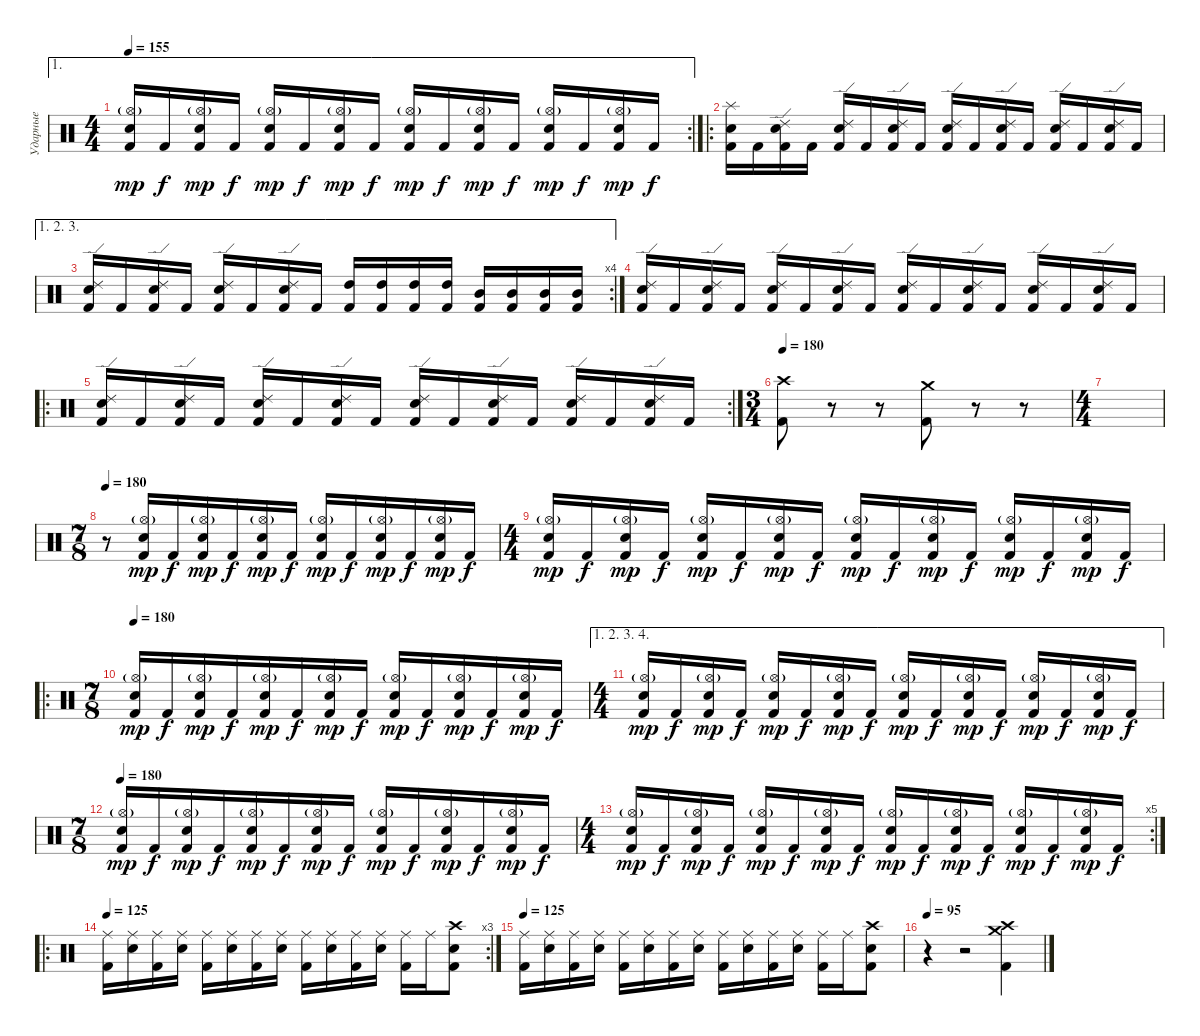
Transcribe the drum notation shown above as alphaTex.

\track ("Ударные" "Ударные") {instrument percussion}
\staff {score}
\articulation defaults
\ae 1
\rc 2
\ts (4 4)
\tempo 155
\clef neutral
\ks c
("Electric Snare (hit)" "Hi-Hat (open)"{g} "Kick (hit) 2").16{dy mp} "Kick (hit) 2".16{dy f} ("Electric Snare (hit)" "Hi-Hat (open)"{g} "Kick (hit) 2").16{dy mp} "Kick (hit) 2".16{dy f} ("Electric Snare (hit)" "Hi-Hat (open)"{g} "Kick (hit) 2").16{dy mp} "Kick (hit) 2".16{dy f} ("Electric Snare (hit)" "Hi-Hat (open)"{g} "Kick (hit) 2").16{dy mp} "Kick (hit) 2".16{dy f} ("Electric Snare (hit)" "Hi-Hat (open)"{g} "Kick (hit) 2").16{dy mp} "Kick (hit) 2".16{dy f} ("Electric Snare (hit)" "Hi-Hat (open)"{g} "Kick (hit) 2").16{dy mp} "Kick (hit) 2".16{dy f} ("Electric Snare (hit)" "Hi-Hat (open)"{g} "Kick (hit) 2").16{dy mp} "Kick (hit) 2".16{dy f} ("Electric Snare (hit)" "Hi-Hat (open)"{g} "Kick (hit) 2").16{dy mp} "Kick (hit) 2".16{dy f} |
\ro
("Electric Snare (hit)" "Splash (hit)" "Kick (hit) 2").16 "Kick (hit) 2".16 ("Electric Snare (hit)" "Ride (edge) 2" "Kick (hit) 2").16 "Kick (hit) 2".16 ("Electric Snare (hit)" "Ride (edge) 2" "Kick (hit) 2").16 "Kick (hit) 2".16 ("Electric Snare (hit)" "Ride (edge) 2" "Kick (hit) 2").16 "Kick (hit) 2".16 ("Electric Snare (hit)" "Ride (edge) 2" "Kick (hit) 2").16 "Kick (hit) 2".16 ("Electric Snare (hit)" "Ride (edge) 2" "Kick (hit) 2").16 "Kick (hit) 2".16 ("Electric Snare (hit)" "Ride (edge) 2" "Kick (hit) 2").16 "Kick (hit) 2".16 ("Electric Snare (hit)" "Ride (edge) 2" "Kick (hit) 2").16 "Kick (hit) 2".16 |
\ae (1 2 3)
\rc 4
("Electric Snare (hit)" "Ride (edge) 2" "Kick (hit) 2").16 "Kick (hit) 2".16 ("Electric Snare (hit)" "Ride (edge) 2" "Kick (hit) 2").16 "Kick (hit) 2".16 ("Electric Snare (hit)" "Ride (edge) 2" "Kick (hit) 2").16 "Kick (hit) 2".16 ("Electric Snare (hit)" "Ride (edge) 2" "Kick (hit) 2").16 "Kick (hit) 2".16 ("High Tom (hit)" "Kick (hit) 2").16 ("High Tom (hit)" "Kick (hit) 2").16 ("High Tom (hit)" "Kick (hit) 2").16 ("High Tom (hit)" "Kick (hit) 2").16 ("Mid Tom (hit)" "Kick (hit) 2").16 ("Mid Tom (hit)" "Kick (hit) 2").16 ("Mid Tom (hit)" "Kick (hit) 2").16 ("Mid Tom (hit)" "Kick (hit) 2").16 |
("Electric Snare (hit)" "Ride (edge) 2" "Kick (hit) 2").16 "Kick (hit) 2".16 ("Electric Snare (hit)" "Ride (edge) 2" "Kick (hit) 2").16 "Kick (hit) 2".16 ("Electric Snare (hit)" "Ride (edge) 2" "Kick (hit) 2").16 "Kick (hit) 2".16 ("Electric Snare (hit)" "Ride (edge) 2" "Kick (hit) 2").16 "Kick (hit) 2".16 ("Electric Snare (hit)" "Ride (edge) 2" "Kick (hit) 2").16 "Kick (hit) 2".16 ("Electric Snare (hit)" "Ride (edge) 2" "Kick (hit) 2").16 "Kick (hit) 2".16 ("Electric Snare (hit)" "Ride (edge) 2" "Kick (hit) 2").16 "Kick (hit) 2".16 ("Electric Snare (hit)" "Ride (edge) 2" "Kick (hit) 2").16 "Kick (hit) 2".16 |
\ro
\rc 2
("Electric Snare (hit)" "Ride (edge) 2" "Kick (hit) 2").16 "Kick (hit) 2".16 ("Electric Snare (hit)" "Ride (edge) 2" "Kick (hit) 2").16 "Kick (hit) 2".16 ("Electric Snare (hit)" "Ride (edge) 2" "Kick (hit) 2").16 "Kick (hit) 2".16 ("Electric Snare (hit)" "Ride (edge) 2" "Kick (hit) 2").16 "Kick (hit) 2".16 ("Electric Snare (hit)" "Ride (edge) 2" "Kick (hit) 2").16 "Kick (hit) 2".16 ("Electric Snare (hit)" "Ride (edge) 2" "Kick (hit) 2").16 "Kick (hit) 2".16 ("Electric Snare (hit)" "Ride (edge) 2" "Kick (hit) 2").16 "Kick (hit) 2".16 ("Electric Snare (hit)" "Ride (edge) 2" "Kick (hit) 2").16 "Kick (hit) 2".16 |
\ts (3 4)
\tempo 180
("Crash high (hit)" "Kick (hit) 2").8 r.8 r.8 ("Crash medium (hit)" "Kick (hit) 2").8 r.8 r.8 |
\ts (4 4)
|
\ts (7 8)
\tempo 180
r.8 ("Hi-Hat (open)"{g} "Electric Snare (hit)" "Kick (hit) 2").16{dy mp} "Kick (hit) 2".16{dy f} ("Hi-Hat (open)"{g} "Electric Snare (hit)" "Kick (hit) 2").16{dy mp} "Kick (hit) 2".16{dy f} ("Hi-Hat (open)"{g} "Electric Snare (hit)" "Kick (hit) 2").16{dy mp} "Kick (hit) 2".16{dy f} ("Hi-Hat (open)"{g} "Electric Snare (hit)" "Kick (hit) 2").16{dy mp} "Kick (hit) 2".16{dy f} ("Hi-Hat (open)"{g} "Electric Snare (hit)" "Kick (hit) 2").16{dy mp} "Kick (hit) 2".16{dy f} ("Hi-Hat (open)"{g} "Electric Snare (hit)" "Kick (hit) 2").16{dy mp} "Kick (hit) 2".16{dy f} |
\ts (4 4)
("Hi-Hat (open)"{g} "Electric Snare (hit)" "Kick (hit) 2").16{dy mp} "Kick (hit) 2".16{dy f} ("Hi-Hat (open)"{g} "Electric Snare (hit)" "Kick (hit) 2").16{dy mp} "Kick (hit) 2".16{dy f} ("Hi-Hat (open)"{g} "Electric Snare (hit)" "Kick (hit) 2").16{dy mp} "Kick (hit) 2".16{dy f} ("Hi-Hat (open)"{g} "Electric Snare (hit)" "Kick (hit) 2").16{dy mp} "Kick (hit) 2".16{dy f} ("Hi-Hat (open)"{g} "Electric Snare (hit)" "Kick (hit) 2").16{dy mp} "Kick (hit) 2".16{dy f} ("Hi-Hat (open)"{g} "Electric Snare (hit)" "Kick (hit) 2").16{dy mp} "Kick (hit) 2".16{dy f} ("Hi-Hat (open)"{g} "Electric Snare (hit)" "Kick (hit) 2").16{dy mp} "Kick (hit) 2".16{dy f} ("Hi-Hat (open)"{g} "Electric Snare (hit)" "Kick (hit) 2").16{dy mp} "Kick (hit) 2".16{dy f} |
\ro
\ts (7 8)
\tempo 180
("Electric Snare (hit)" "Hi-Hat (open)"{g} "Kick (hit) 2").16{dy mp} "Kick (hit) 2".16{dy f} ("Electric Snare (hit)" "Hi-Hat (open)"{g} "Kick (hit) 2").16{dy mp} "Kick (hit) 2".16{dy f} ("Electric Snare (hit)" "Hi-Hat (open)"{g} "Kick (hit) 2").16{dy mp} "Kick (hit) 2".16{dy f} ("Electric Snare (hit)" "Hi-Hat (open)"{g} "Kick (hit) 2").16{dy mp} "Kick (hit) 2".16{dy f} ("Electric Snare (hit)" "Hi-Hat (open)"{g} "Kick (hit) 2").16{dy mp} "Kick (hit) 2".16{dy f} ("Electric Snare (hit)" "Hi-Hat (open)"{g} "Kick (hit) 2").16{dy mp} "Kick (hit) 2".16{dy f} ("Electric Snare (hit)" "Hi-Hat (open)"{g} "Kick (hit) 2").16{dy mp} "Kick (hit) 2".16{dy f} |
\ae (1 2 3 4)
\ts (4 4)
("Hi-Hat (open)"{g} "Electric Snare (hit)" "Kick (hit) 2").16{dy mp} "Kick (hit) 2".16{dy f} ("Hi-Hat (open)"{g} "Electric Snare (hit)" "Kick (hit) 2").16{dy mp} "Kick (hit) 2".16{dy f} ("Hi-Hat (open)"{g} "Electric Snare (hit)" "Kick (hit) 2").16{dy mp} "Kick (hit) 2".16{dy f} ("Hi-Hat (open)"{g} "Electric Snare (hit)" "Kick (hit) 2").16{dy mp} "Kick (hit) 2".16{dy f} ("Hi-Hat (open)"{g} "Electric Snare (hit)" "Kick (hit) 2").16{dy mp} "Kick (hit) 2".16{dy f} ("Hi-Hat (open)"{g} "Electric Snare (hit)" "Kick (hit) 2").16{dy mp} "Kick (hit) 2".16{dy f} ("Hi-Hat (open)"{g} "Electric Snare (hit)" "Kick (hit) 2").16{dy mp} "Kick (hit) 2".16{dy f} ("Hi-Hat (open)"{g} "Electric Snare (hit)" "Kick (hit) 2").16{dy mp} "Kick (hit) 2".16{dy f} |
\ts (7 8)
\tempo 180
("Electric Snare (hit)" "Hi-Hat (open)"{g} "Kick (hit) 2").16{dy mp} "Kick (hit) 2".16{dy f} ("Electric Snare (hit)" "Hi-Hat (open)"{g} "Kick (hit) 2").16{dy mp} "Kick (hit) 2".16{dy f} ("Electric Snare (hit)" "Hi-Hat (open)"{g} "Kick (hit) 2").16{dy mp} "Kick (hit) 2".16{dy f} ("Electric Snare (hit)" "Hi-Hat (open)"{g} "Kick (hit) 2").16{dy mp} "Kick (hit) 2".16{dy f} ("Electric Snare (hit)" "Hi-Hat (open)"{g} "Kick (hit) 2").16{dy mp} "Kick (hit) 2".16{dy f} ("Electric Snare (hit)" "Hi-Hat (open)"{g} "Kick (hit) 2").16{dy mp} "Kick (hit) 2".16{dy f} ("Electric Snare (hit)" "Hi-Hat (open)"{g} "Kick (hit) 2").16{dy mp} "Kick (hit) 2".16{dy f} |
\rc 5
\ts (4 4)
("Hi-Hat (open)"{g} "Electric Snare (hit)" "Kick (hit) 2").16{dy mp} "Kick (hit) 2".16{dy f} ("Hi-Hat (open)"{g} "Electric Snare (hit)" "Kick (hit) 2").16{dy mp} "Kick (hit) 2".16{dy f} ("Hi-Hat (open)"{g} "Electric Snare (hit)" "Kick (hit) 2").16{dy mp} "Kick (hit) 2".16{dy f} ("Hi-Hat (open)"{g} "Electric Snare (hit)" "Kick (hit) 2").16{dy mp} "Kick (hit) 2".16{dy f} ("Hi-Hat (open)"{g} "Electric Snare (hit)" "Kick (hit) 2").16{dy mp} "Kick (hit) 2".16{dy f} ("Hi-Hat (open)"{g} "Electric Snare (hit)" "Kick (hit) 2").16{dy mp} "Kick (hit) 2".16{dy f} ("Hi-Hat (open)"{g} "Electric Snare (hit)" "Kick (hit) 2").16{dy mp} "Kick (hit) 2".16{dy f} ("Hi-Hat (open)"{g} "Electric Snare (hit)" "Kick (hit) 2").16{dy mp} "Kick (hit) 2".16{dy f} |
\ro
\rc 3
\tempo 125
("Ride (middle)" "Kick (hit) 2").16 ("Electric Snare (hit)" "Ride (middle)").16 ("Ride (middle)" "Kick (hit) 2").16 ("Electric Snare (hit)" "Ride (middle)").16 ("Ride (middle)" "Kick (hit) 2").16 ("Electric Snare (hit)" "Ride (middle)").16 ("Ride (middle)" "Kick (hit) 2").16 ("Electric Snare (hit)" "Ride (middle)").16 ("Ride (middle)" "Kick (hit) 2").16 ("Electric Snare (hit)" "Ride (middle)").16 ("Ride (middle)" "Kick (hit) 2").16 ("Electric Snare (hit)" "Ride (middle)").16 ("Ride (middle)" "Kick (hit) 2").16 "Ride (middle)".16 ("Electric Snare (hit)" "Crash high (hit)" "Kick (hit) 2").8 |
\tempo 125
("Ride (middle)" "Kick (hit) 2").16 ("Electric Snare (hit)" "Ride (middle)").16 ("Ride (middle)" "Kick (hit) 2").16 ("Electric Snare (hit)" "Ride (middle)").16 ("Ride (middle)" "Kick (hit) 2").16 ("Electric Snare (hit)" "Ride (middle)").16 ("Ride (middle)" "Kick (hit) 2").16 ("Electric Snare (hit)" "Ride (middle)").16 ("Ride (middle)" "Kick (hit) 2").16 ("Electric Snare (hit)" "Ride (middle)").16 ("Ride (middle)" "Kick (hit) 2").16 ("Electric Snare (hit)" "Ride (middle)").16 ("Ride (middle)" "Kick (hit) 2").16 "Ride (middle)".16 ("Electric Snare (hit)" "Crash high (hit)" "Kick (hit) 2").8 |
\tempo 100
\tempo 95
r.4 r.2 ("Crash medium (hit)" "Crash high (hit)" "Kick (hit) 2").4
